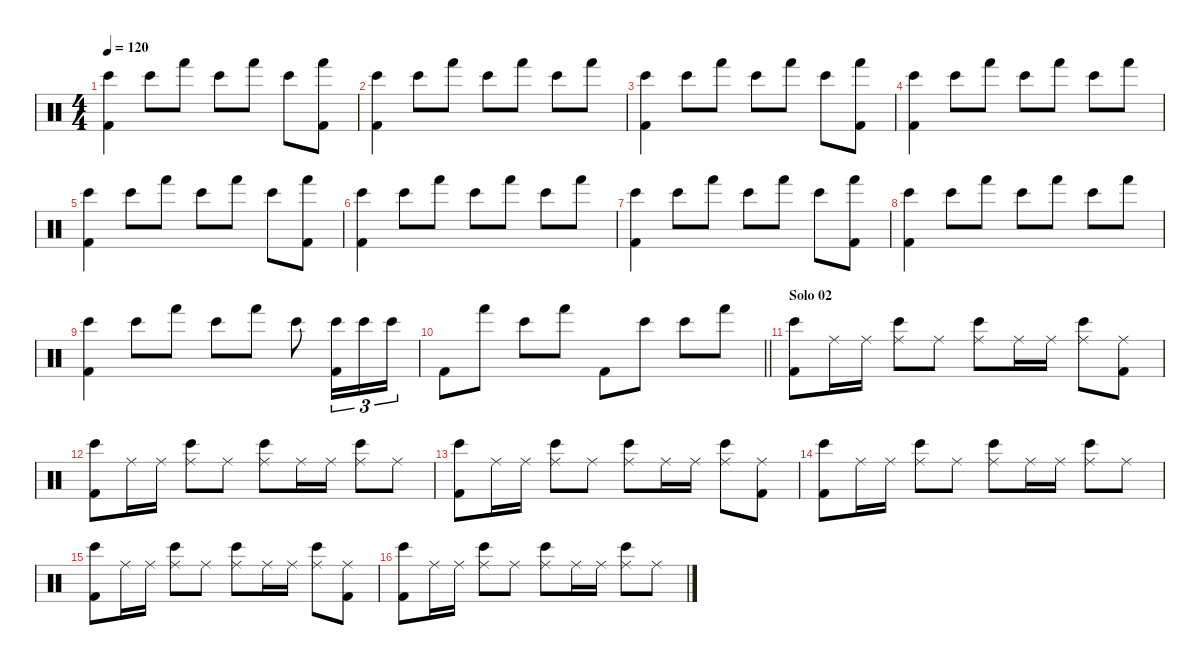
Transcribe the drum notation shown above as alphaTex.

\defaultSystemsLayout 4
\hideDynamics
\bracketExtendMode nobrackets
\singleTrackTrackNamePolicy hidden
\multiTrackTrackNamePolicy hidden
\firstSystemTrackNameMode fullname
\firstSystemTrackNameOrientation horizontal
\otherSystemsTrackNameOrientation horizontal
\track ("Bateria" "drm.") {instrument percussion}
\staff {score}
\articulation defaults
\ts (4 4)
\tempo 120
\clef neutral
\ks c
("Kick (hit) 2" "Bongo High (hit)").4{dy f beam Down} "Bongo High (hit)".8{beam Down} "Hand (hit)".8{dy mf beam Down} "Bongo High (hit)".8{dy f beam Down} "Hand (hit)".8{dy mf beam Down} "Bongo High (hit)".8{dy f beam Down} ("Kick (hit) 2" "Hand (hit)").8{beam Down} |
("Kick (hit) 2" "Bongo High (hit)").4{beam Down} "Bongo High (hit)".8{beam Down} "Hand (hit)".8{dy mf beam Down} "Bongo High (hit)".8{dy f beam Down} "Hand (hit)".8{dy mf beam Down} "Bongo High (hit)".8{dy f beam Down} "Hand (hit)".8{dy mf beam Down} |
("Kick (hit) 2" "Bongo High (hit)").4{dy f beam Down} "Bongo High (hit)".8{beam Down} "Hand (hit)".8{dy mf beam Down} "Bongo High (hit)".8{dy f beam Down} "Hand (hit)".8{dy mf beam Down} "Bongo High (hit)".8{dy f beam Down} ("Kick (hit) 2" "Hand (hit)").8{beam Down} |
("Kick (hit) 2" "Bongo High (hit)").4{beam Down} "Bongo High (hit)".8{beam Down} "Hand (hit)".8{dy mf beam Down} "Bongo High (hit)".8{dy f beam Down} "Hand (hit)".8{dy mf beam Down} "Bongo High (hit)".8{dy f beam Down} "Hand (hit)".8{dy mf beam Down} |
("Kick (hit) 2" "Bongo High (hit)").4{dy f beam Down} "Bongo High (hit)".8{beam Down} "Hand (hit)".8{dy mf beam Down} "Bongo High (hit)".8{dy f beam Down} "Hand (hit)".8{dy mf beam Down} "Bongo High (hit)".8{dy f beam Down} ("Kick (hit) 2" "Hand (hit)").8{beam Down} |
("Kick (hit) 2" "Bongo High (hit)").4{beam Down} "Bongo High (hit)".8{beam Down} "Hand (hit)".8{dy mf beam Down} "Bongo High (hit)".8{dy f beam Down} "Hand (hit)".8{dy mf beam Down} "Bongo High (hit)".8{dy f beam Down} "Hand (hit)".8{dy mf beam Down} |
("Kick (hit) 2" "Bongo High (hit)").4{dy f beam Down} "Bongo High (hit)".8{beam Down} "Hand (hit)".8{dy mf beam Down} "Bongo High (hit)".8{dy f beam Down} "Hand (hit)".8{dy mf beam Down} "Bongo High (hit)".8{dy f beam Down} ("Kick (hit) 2" "Hand (hit)").8{beam Down} |
("Kick (hit) 2" "Bongo High (hit)").4{beam Down} "Bongo High (hit)".8{beam Down} "Hand (hit)".8{dy mf beam Down} "Bongo High (hit)".8{dy f beam Down} "Hand (hit)".8{dy mf beam Down} "Bongo High (hit)".8{dy f beam Down} "Hand (hit)".8{dy mf beam Down} |
("Kick (hit) 2" "Bongo High (hit)").4{dy f beam Down} "Bongo High (hit)".8{beam Down} "Hand (hit)".8{dy mf beam Down} "Bongo High (hit)".8{dy f beam Down} "Hand (hit)".8{dy mf beam Down} "Bongo High (hit)".8{dy f beam Down} ("Kick (hit) 2" "Bongo High (hit)").16{tu (3 2) beam Down} "Bongo High (hit)".16{tu (3 2) beam Down} "Bongo High (hit)".16{tu (3 2) beam Down} |
\barLineRight lightlight "Kick (hit) 2".8{beam Down} "Hand (hit)".8{dy mf beam Down} "Bongo High (hit)".8{dy ff beam Down} "Hand (hit)".8{dy mf beam Down} "Kick (hit) 2".8{dy f beam Down} "Bongo High (hit)".8{dy ff beam Down} "Bongo High (hit)".8{beam Down} "Hand (hit)".8{dy f beam Down}
|
\section ("" "Solo 02")
("Kick (hit) 2" "Bongo High (hit)").8{beam Down} "Ride (middle)".16{dy mf beam Down} "Ride (middle)".16{beam Down} ("Bongo High (hit)" "Ride (middle)").8{dy f beam Down} "Ride (middle)".8{dy mf beam Down} ("Bongo High (hit)" "Ride (middle)").8{dy f beam Down} "Ride (middle)".16{dy mf beam Down} "Ride (middle)".16{beam Down} ("Bongo High (hit)" "Ride (middle)").8{dy f beam Down} ("Kick (hit) 2" "Ride (middle)").8{beam Down} |
("Kick (hit) 2" "Bongo High (hit)").8{beam Down} "Ride (middle)".16{dy mf beam Down} "Ride (middle)".16{beam Down} ("Bongo High (hit)" "Ride (middle)").8{dy f beam Down} "Ride (middle)".8{dy mf beam Down} ("Bongo High (hit)" "Ride (middle)").8{dy f beam Down} "Ride (middle)".16{dy mf beam Down} "Ride (middle)".16{beam Down} ("Bongo High (hit)" "Ride (middle)").8{dy f beam Down} "Ride (middle)".8{dy mf beam Down} |
("Kick (hit) 2" "Bongo High (hit)").8{dy f beam Down} "Ride (middle)".16{dy mf beam Down} "Ride (middle)".16{beam Down} ("Bongo High (hit)" "Ride (middle)").8{dy f beam Down} "Ride (middle)".8{dy mf beam Down} ("Bongo High (hit)" "Ride (middle)").8{dy f beam Down} "Ride (middle)".16{dy mf beam Down} "Ride (middle)".16{beam Down} ("Bongo High (hit)" "Ride (middle)").8{dy f beam Down} ("Kick (hit) 2" "Ride (middle)").8{beam Down} |
("Kick (hit) 2" "Bongo High (hit)").8{beam Down} "Ride (middle)".16{dy mf beam Down} "Ride (middle)".16{beam Down} ("Bongo High (hit)" "Ride (middle)").8{dy f beam Down} "Ride (middle)".8{dy mf beam Down} ("Bongo High (hit)" "Ride (middle)").8{dy f beam Down} "Ride (middle)".16{dy mf beam Down} "Ride (middle)".16{beam Down} ("Bongo High (hit)" "Ride (middle)").8{dy f beam Down} "Ride (middle)".8{dy mf beam Down} |
("Kick (hit) 2" "Bongo High (hit)").8{dy f beam Down} "Ride (middle)".16{dy mf beam Down} "Ride (middle)".16{beam Down} ("Bongo High (hit)" "Ride (middle)").8{dy f beam Down} "Ride (middle)".8{dy mf beam Down} ("Bongo High (hit)" "Ride (middle)").8{dy f beam Down} "Ride (middle)".16{dy mf beam Down} "Ride (middle)".16{beam Down} ("Bongo High (hit)" "Ride (middle)").8{dy f beam Down} ("Kick (hit) 2" "Ride (middle)").8{beam Down} |
("Kick (hit) 2" "Bongo High (hit)").8{beam Down} "Ride (middle)".16{dy mf beam Down} "Ride (middle)".16{beam Down} ("Bongo High (hit)" "Ride (middle)").8{dy f beam Down} "Ride (middle)".8{dy mf beam Down} ("Bongo High (hit)" "Ride (middle)").8{dy f beam Down} "Ride (middle)".16{dy mf beam Down} "Ride (middle)".16{beam Down} ("Bongo High (hit)" "Ride (middle)").8{dy f beam Down} "Ride (middle)".8{dy mf beam Down}
